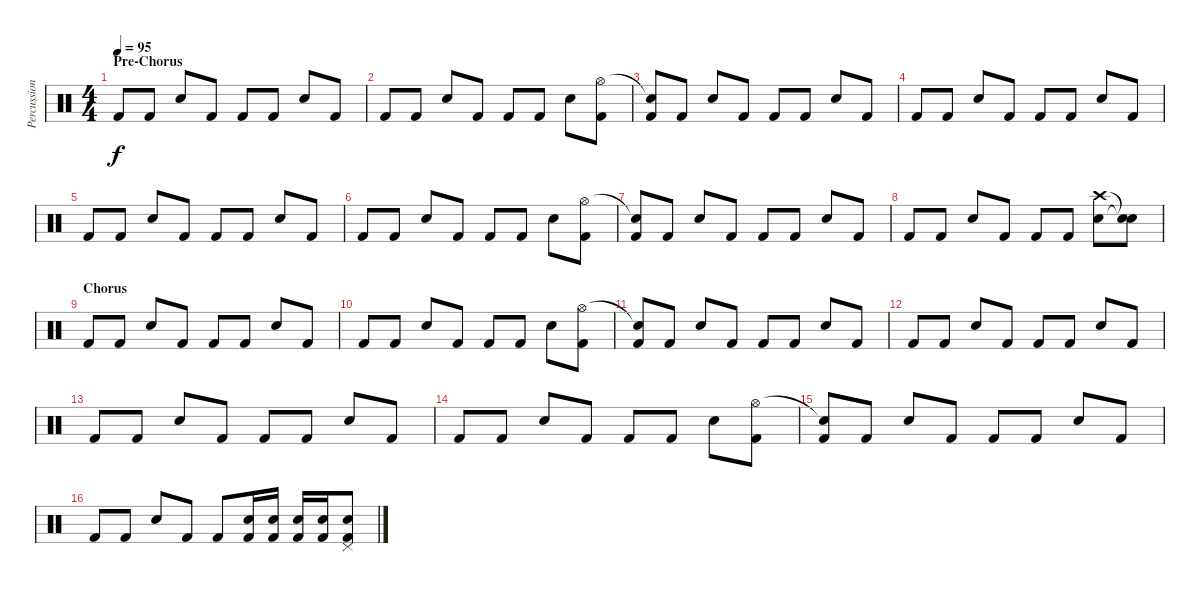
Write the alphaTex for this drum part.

\track ("Percussion" "Percussion") {instrument percussion}
\staff {score}
\articulation defaults
\ts (4 4)
\section ("" "Pre-Chorus")
\tempo 95
\clef neutral
\ks c "Kick (hit) 2".8{dy f} "Kick (hit) 2".8 "Electric Snare (hit)".8 "Kick (hit) 2".8 "Kick (hit) 2".8 "Kick (hit) 2".8 "Electric Snare (hit)".8 "Kick (hit) 2".8
|
"Kick (hit) 2".8 "Kick (hit) 2".8 "Electric Snare (hit)".8 "Kick (hit) 2".8 "Kick (hit) 2".8 "Kick (hit) 2".8 "Electric Snare (hit)".8 ("Hi-Hat (open)" "Kick (hit) 2").8 |
("Snare (hit)"{t} "Kick (hit) 2").8 "Kick (hit) 2".8 "Electric Snare (hit)".8 "Kick (hit) 2".8 "Kick (hit) 2".8 "Kick (hit) 2".8 "Electric Snare (hit)".8 "Kick (hit) 2".8 |
"Kick (hit) 2".8 "Kick (hit) 2".8 "Electric Snare (hit)".8 "Kick (hit) 2".8 "Kick (hit) 2".8 "Kick (hit) 2".8 "Electric Snare (hit)".8 "Kick (hit) 2".8 |
"Kick (hit) 2".8 "Kick (hit) 2".8 "Electric Snare (hit)".8 "Kick (hit) 2".8 "Kick (hit) 2".8 "Kick (hit) 2".8 "Electric Snare (hit)".8 "Kick (hit) 2".8 |
"Kick (hit) 2".8 "Kick (hit) 2".8 "Electric Snare (hit)".8 "Kick (hit) 2".8 "Kick (hit) 2".8 "Kick (hit) 2".8 "Electric Snare (hit)".8 ("Hi-Hat (open)" "Kick (hit) 2").8 |
("Snare (hit)"{t} "Kick (hit) 2").8 "Kick (hit) 2".8 "Electric Snare (hit)".8 "Kick (hit) 2".8 "Kick (hit) 2".8 "Kick (hit) 2".8 "Electric Snare (hit)".8 "Kick (hit) 2".8 |
"Kick (hit) 2".8 "Kick (hit) 2".8 "Electric Snare (hit)".8 "Kick (hit) 2".8 "Kick (hit) 2".8 "Kick (hit) 2".8 ("Crash high (hit)" "Electric Snare (hit)").8 ("Snare (hit)"{t} "Snare (hit)"{t}).8 |
\section ("" "Chorus")
"Kick (hit) 2".8 "Kick (hit) 2".8 "Electric Snare (hit)".8 "Kick (hit) 2".8 "Kick (hit) 2".8 "Kick (hit) 2".8 "Electric Snare (hit)".8 "Kick (hit) 2".8 |
"Kick (hit) 2".8 "Kick (hit) 2".8 "Electric Snare (hit)".8 "Kick (hit) 2".8 "Kick (hit) 2".8 "Kick (hit) 2".8 "Electric Snare (hit)".8 ("Hi-Hat (open)" "Kick (hit) 2").8 |
("Snare (hit)"{t} "Kick (hit) 2").8 "Kick (hit) 2".8 "Electric Snare (hit)".8 "Kick (hit) 2".8 "Kick (hit) 2".8 "Kick (hit) 2".8 "Electric Snare (hit)".8 "Kick (hit) 2".8 |
"Kick (hit) 2".8 "Kick (hit) 2".8 "Electric Snare (hit)".8 "Kick (hit) 2".8 "Kick (hit) 2".8 "Kick (hit) 2".8 "Electric Snare (hit)".8 "Kick (hit) 2".8 |
"Kick (hit) 2".8 "Kick (hit) 2".8 "Electric Snare (hit)".8 "Kick (hit) 2".8 "Kick (hit) 2".8 "Kick (hit) 2".8 "Electric Snare (hit)".8 "Kick (hit) 2".8 |
"Kick (hit) 2".8 "Kick (hit) 2".8 "Electric Snare (hit)".8 "Kick (hit) 2".8 "Kick (hit) 2".8 "Kick (hit) 2".8 "Electric Snare (hit)".8 ("Hi-Hat (open)" "Kick (hit) 2").8 |
("Snare (hit)"{t} "Kick (hit) 2").8 "Kick (hit) 2".8 "Electric Snare (hit)".8 "Kick (hit) 2".8 "Kick (hit) 2".8 "Kick (hit) 2".8 "Electric Snare (hit)".8 "Kick (hit) 2".8 |
"Kick (hit) 2".8 "Kick (hit) 2".8 "Electric Snare (hit)".8 "Kick (hit) 2".8 "Kick (hit) 2".8 ("Electric Snare (hit)" "Kick (hit) 2").16 ("Electric Snare (hit)" "Kick (hit) 2").16 ("Electric Snare (hit)" "Kick (hit) 2").16 ("Electric Snare (hit)" "Kick (hit) 2").16 ("Pedal Hi-Hat (hit)" "Electric Snare (hit)" "Kick (hit) 2").8
